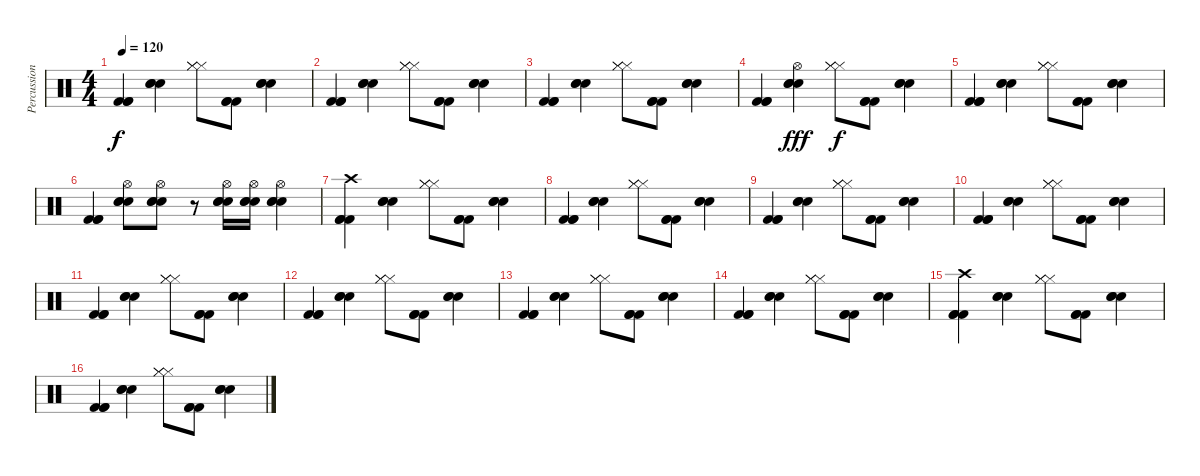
\track ("Percussion" "Percussion") {instrument percussion}
\staff {score}
\articulation defaults
\ts (4 4)
\tempo 120
\clef neutral
\ks c
("Kick (hit) 2" "Kick (hit) 2" "Kick (hit) 2").4{dy f} ("Snare (hit) 2" "Snare (hit) 2" "Snare (hit) 2").4 ("Hi-Hat (closed)" "Hi-Hat (closed)" "Hi-Hat (closed)").8 ("Kick (hit) 2" "Kick (hit) 2" "Kick (hit) 2").8 ("Snare (hit) 2" "Snare (hit) 2" "Snare (hit) 2").4 |
("Kick (hit) 2" "Kick (hit) 2" "Kick (hit) 2").4 ("Snare (hit) 2" "Snare (hit) 2" "Snare (hit) 2").4 ("Hi-Hat (closed)" "Hi-Hat (closed)" "Hi-Hat (closed)").8 ("Kick (hit) 2" "Kick (hit) 2" "Kick (hit) 2").8 ("Snare (hit) 2" "Snare (hit) 2" "Snare (hit) 2").4 |
("Kick (hit) 2" "Kick (hit) 2" "Kick (hit) 2").4 ("Snare (hit) 2" "Snare (hit) 2" "Snare (hit) 2").4 ("Hi-Hat (closed)" "Hi-Hat (closed)" "Hi-Hat (closed)").8 ("Kick (hit) 2" "Kick (hit) 2" "Kick (hit) 2").8 ("Snare (hit) 2" "Snare (hit) 2" "Snare (hit) 2").4 |
("Kick (hit) 2" "Kick (hit) 2" "Kick (hit) 2").4 ("Snare (hit) 2" "Snare (hit) 2" "Snare (hit) 2" "Hi-Hat (open)").4{dy fff} ("Hi-Hat (closed)" "Hi-Hat (closed)" "Hi-Hat (closed)").8{dy f} ("Kick (hit) 2" "Kick (hit) 2" "Kick (hit) 2").8 ("Snare (hit) 2" "Snare (hit) 2" "Snare (hit) 2").4 |
("Kick (hit) 2" "Kick (hit) 2" "Kick (hit) 2").4 ("Snare (hit) 2" "Snare (hit) 2" "Snare (hit) 2").4 ("Hi-Hat (closed)" "Hi-Hat (closed)" "Hi-Hat (closed)").8 ("Kick (hit) 2" "Kick (hit) 2" "Kick (hit) 2").8 ("Snare (hit) 2" "Snare (hit) 2" "Snare (hit) 2").4 |
("Kick (hit) 2" "Kick (hit) 2" "Kick (hit) 2").4 ("Snare (hit) 2" "Snare (hit) 2" "Snare (hit) 2" "Hi-Hat (open)").8 ("Snare (hit) 2" "Snare (hit) 2" "Snare (hit) 2" "Hi-Hat (open)").8 r.8 ("Snare (hit) 2" "Snare (hit) 2" "Snare (hit) 2" "Hi-Hat (open)").16 ("Snare (hit) 2" "Snare (hit) 2" "Snare (hit) 2" "Hi-Hat (open)").16 ("Snare (hit) 2" "Snare (hit) 2" "Snare (hit) 2" "Hi-Hat (open)").4 |
("Kick (hit) 2" "Kick (hit) 2" "Kick (hit) 2" "Crash high (hit)").4 ("Snare (hit) 2" "Snare (hit) 2" "Snare (hit) 2").4 ("Hi-Hat (closed)" "Hi-Hat (closed)" "Hi-Hat (closed)").8 ("Kick (hit) 2" "Kick (hit) 2" "Kick (hit) 2").8 ("Snare (hit) 2" "Snare (hit) 2" "Snare (hit) 2").4 |
("Kick (hit) 2" "Kick (hit) 2" "Kick (hit) 2").4 ("Snare (hit) 2" "Snare (hit) 2" "Snare (hit) 2").4 ("Hi-Hat (closed)" "Hi-Hat (closed)" "Hi-Hat (closed)").8 ("Kick (hit) 2" "Kick (hit) 2" "Kick (hit) 2").8 ("Snare (hit) 2" "Snare (hit) 2" "Snare (hit) 2").4 |
("Kick (hit) 2" "Kick (hit) 2" "Kick (hit) 2").4 ("Snare (hit) 2" "Snare (hit) 2" "Snare (hit) 2").4 ("Hi-Hat (closed)" "Hi-Hat (closed)" "Hi-Hat (closed)").8 ("Kick (hit) 2" "Kick (hit) 2" "Kick (hit) 2").8 ("Snare (hit) 2" "Snare (hit) 2" "Snare (hit) 2").4 |
("Kick (hit) 2" "Kick (hit) 2" "Kick (hit) 2").4 ("Snare (hit) 2" "Snare (hit) 2" "Snare (hit) 2").4 ("Hi-Hat (closed)" "Hi-Hat (closed)" "Hi-Hat (closed)").8 ("Kick (hit) 2" "Kick (hit) 2" "Kick (hit) 2").8 ("Snare (hit) 2" "Snare (hit) 2" "Snare (hit) 2").4 |
("Kick (hit) 2" "Kick (hit) 2" "Kick (hit) 2").4 ("Snare (hit) 2" "Snare (hit) 2" "Snare (hit) 2").4 ("Hi-Hat (closed)" "Hi-Hat (closed)" "Hi-Hat (closed)").8 ("Kick (hit) 2" "Kick (hit) 2" "Kick (hit) 2").8 ("Snare (hit) 2" "Snare (hit) 2" "Snare (hit) 2").4 |
("Kick (hit) 2" "Kick (hit) 2" "Kick (hit) 2").4 ("Snare (hit) 2" "Snare (hit) 2" "Snare (hit) 2").4 ("Hi-Hat (closed)" "Hi-Hat (closed)" "Hi-Hat (closed)").8 ("Kick (hit) 2" "Kick (hit) 2" "Kick (hit) 2").8 ("Snare (hit) 2" "Snare (hit) 2" "Snare (hit) 2").4 |
("Kick (hit) 2" "Kick (hit) 2" "Kick (hit) 2").4 ("Snare (hit) 2" "Snare (hit) 2" "Snare (hit) 2").4 ("Hi-Hat (closed)" "Hi-Hat (closed)" "Hi-Hat (closed)").8 ("Kick (hit) 2" "Kick (hit) 2" "Kick (hit) 2").8 ("Snare (hit) 2" "Snare (hit) 2" "Snare (hit) 2").4 |
("Kick (hit) 2" "Kick (hit) 2" "Kick (hit) 2").4 ("Snare (hit) 2" "Snare (hit) 2" "Snare (hit) 2").4 ("Hi-Hat (closed)" "Hi-Hat (closed)" "Hi-Hat (closed)").8 ("Kick (hit) 2" "Kick (hit) 2" "Kick (hit) 2").8 ("Snare (hit) 2" "Snare (hit) 2" "Snare (hit) 2").4 |
("Kick (hit) 2" "Kick (hit) 2" "Kick (hit) 2" "Crash high (hit)").4 ("Snare (hit) 2" "Snare (hit) 2" "Snare (hit) 2").4 ("Hi-Hat (closed)" "Hi-Hat (closed)" "Hi-Hat (closed)").8 ("Kick (hit) 2" "Kick (hit) 2" "Kick (hit) 2").8 ("Snare (hit) 2" "Snare (hit) 2" "Snare (hit) 2").4 |
("Kick (hit) 2" "Kick (hit) 2" "Kick (hit) 2").4 ("Snare (hit) 2" "Snare (hit) 2" "Snare (hit) 2").4 ("Hi-Hat (closed)" "Hi-Hat (closed)" "Hi-Hat (closed)").8 ("Kick (hit) 2" "Kick (hit) 2" "Kick (hit) 2").8 ("Snare (hit) 2" "Snare (hit) 2" "Snare (hit) 2").4
